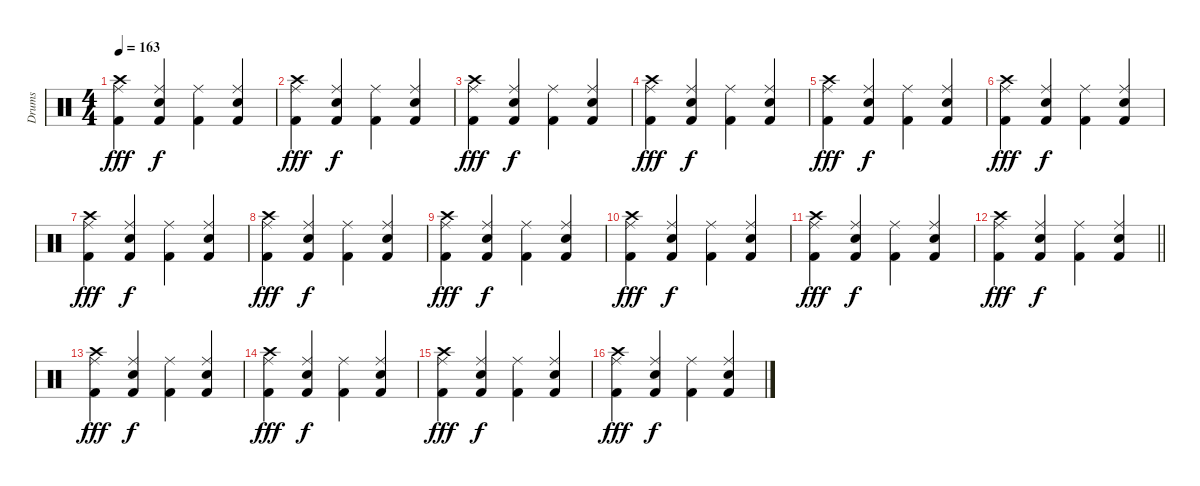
\track ("Drums" "Drums") {instrument percussion}
\staff {score}
\articulation defaults
\ts (4 4)
\tempo 163
\clef neutral
\ks c
("Kick (hit) 2" "Crash high (hit)" "Ride (middle)").4{dy fff} ("Kick (hit) 2" "Snare (hit) 2" "Ride (middle)").4{dy f} ("Kick (hit) 2" "Ride (middle)").4 ("Kick (hit) 2" "Snare (hit) 2" "Ride (middle)").4 |
("Kick (hit) 2" "Crash high (hit)" "Ride (middle)").4{dy fff} ("Kick (hit) 2" "Snare (hit) 2" "Ride (middle)").4{dy f} ("Kick (hit) 2" "Ride (middle)").4 ("Kick (hit) 2" "Snare (hit) 2" "Ride (middle)").4 |
("Kick (hit) 2" "Crash high (hit)" "Ride (middle)").4{dy fff} ("Kick (hit) 2" "Snare (hit) 2" "Ride (middle)").4{dy f} ("Kick (hit) 2" "Ride (middle)").4 ("Kick (hit) 2" "Snare (hit) 2" "Ride (middle)").4 |
("Kick (hit) 2" "Crash high (hit)" "Ride (middle)").4{dy fff} ("Kick (hit) 2" "Snare (hit) 2" "Ride (middle)").4{dy f} ("Kick (hit) 2" "Ride (middle)").4 ("Kick (hit) 2" "Snare (hit) 2" "Ride (middle)").4 |
("Kick (hit) 2" "Crash high (hit)" "Ride (middle)").4{dy fff} ("Kick (hit) 2" "Snare (hit) 2" "Ride (middle)").4{dy f} ("Kick (hit) 2" "Ride (middle)").4 ("Kick (hit) 2" "Snare (hit) 2" "Ride (middle)").4 |
("Kick (hit) 2" "Crash high (hit)" "Ride (middle)").4{dy fff} ("Kick (hit) 2" "Snare (hit) 2" "Ride (middle)").4{dy f} ("Kick (hit) 2" "Ride (middle)").4 ("Kick (hit) 2" "Snare (hit) 2" "Ride (middle)").4 |
("Kick (hit) 2" "Crash high (hit)" "Ride (middle)").4{dy fff} ("Kick (hit) 2" "Snare (hit) 2" "Ride (middle)").4{dy f} ("Kick (hit) 2" "Ride (middle)").4 ("Kick (hit) 2" "Snare (hit) 2" "Ride (middle)").4 |
("Kick (hit) 2" "Crash high (hit)" "Ride (middle)").4{dy fff} ("Kick (hit) 2" "Snare (hit) 2" "Ride (middle)").4{dy f} ("Kick (hit) 2" "Ride (middle)").4 ("Kick (hit) 2" "Snare (hit) 2" "Ride (middle)").4 |
("Kick (hit) 2" "Crash high (hit)" "Ride (middle)").4{dy fff} ("Kick (hit) 2" "Snare (hit) 2" "Ride (middle)").4{dy f} ("Kick (hit) 2" "Ride (middle)").4 ("Kick (hit) 2" "Snare (hit) 2" "Ride (middle)").4 |
("Kick (hit) 2" "Crash high (hit)" "Ride (middle)").4{dy fff} ("Kick (hit) 2" "Snare (hit) 2" "Ride (middle)").4{dy f} ("Kick (hit) 2" "Ride (middle)").4 ("Kick (hit) 2" "Snare (hit) 2" "Ride (middle)").4 |
("Kick (hit) 2" "Crash high (hit)" "Ride (middle)").4{dy fff} ("Kick (hit) 2" "Snare (hit) 2" "Ride (middle)").4{dy f} ("Kick (hit) 2" "Ride (middle)").4 ("Kick (hit) 2" "Snare (hit) 2" "Ride (middle)").4 |
\barLineRight lightlight
("Kick (hit) 2" "Crash high (hit)" "Ride (middle)").4{dy fff} ("Kick (hit) 2" "Snare (hit) 2" "Ride (middle)").4{dy f} ("Kick (hit) 2" "Ride (middle)").4 ("Kick (hit) 2" "Snare (hit) 2" "Ride (middle)").4 |
("Kick (hit) 2" "Crash high (hit)" "Ride (middle)").4{dy fff} ("Kick (hit) 2" "Snare (hit) 2" "Ride (middle)").4{dy f} ("Kick (hit) 2" "Ride (middle)").4 ("Kick (hit) 2" "Snare (hit) 2" "Ride (middle)").4 |
("Kick (hit) 2" "Crash high (hit)" "Ride (middle)").4{dy fff} ("Kick (hit) 2" "Snare (hit) 2" "Ride (middle)").4{dy f} ("Kick (hit) 2" "Ride (middle)").4 ("Kick (hit) 2" "Snare (hit) 2" "Ride (middle)").4 |
("Kick (hit) 2" "Crash high (hit)" "Ride (middle)").4{dy fff} ("Kick (hit) 2" "Snare (hit) 2" "Ride (middle)").4{dy f} ("Kick (hit) 2" "Ride (middle)").4 ("Kick (hit) 2" "Snare (hit) 2" "Ride (middle)").4 |
("Kick (hit) 2" "Crash high (hit)" "Ride (middle)").4{dy fff} ("Kick (hit) 2" "Snare (hit) 2" "Ride (middle)").4{dy f} ("Kick (hit) 2" "Ride (middle)").4 ("Kick (hit) 2" "Snare (hit) 2" "Ride (middle)").4
